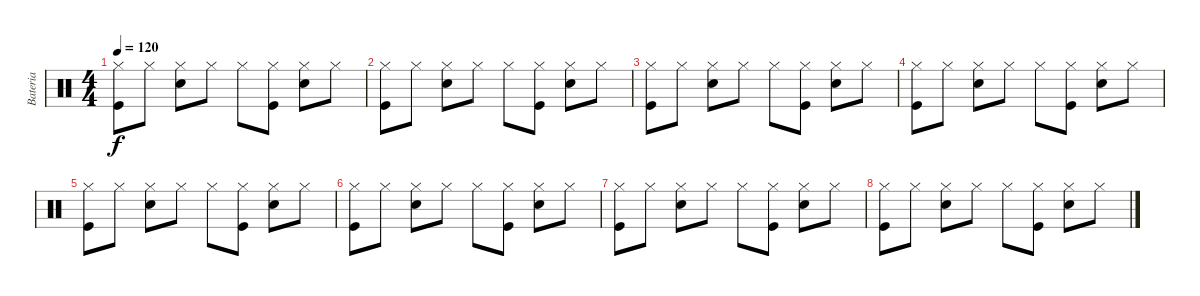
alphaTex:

\track ("Bateria" "Bateria") {instrument percussion}
\staff {score}
\articulation defaults
\ts (4 4)
\tempo 120
\clef neutral
\ks c
("Hi-Hat (closed)" "Kick (hit)").8{dy f} "Hi-Hat (closed)".8 ("Hi-Hat (closed)" "Snare (hit) 2").8 "Hi-Hat (closed)".8 "Hi-Hat (closed)".8 ("Hi-Hat (closed)" "Kick (hit)").8 ("Hi-Hat (closed)" "Snare (hit) 2").8 "Hi-Hat (closed)".8 |
("Hi-Hat (closed)" "Kick (hit)").8 "Hi-Hat (closed)".8 ("Hi-Hat (closed)" "Snare (hit) 2").8 "Hi-Hat (closed)".8 "Hi-Hat (closed)".8 ("Hi-Hat (closed)" "Kick (hit)").8 ("Hi-Hat (closed)" "Snare (hit) 2").8 "Hi-Hat (closed)".8 |
("Hi-Hat (closed)" "Kick (hit)").8 "Hi-Hat (closed)".8 ("Hi-Hat (closed)" "Snare (hit) 2").8 "Hi-Hat (closed)".8 "Hi-Hat (closed)".8 ("Hi-Hat (closed)" "Kick (hit)").8 ("Hi-Hat (closed)" "Snare (hit) 2").8 "Hi-Hat (closed)".8 |
("Hi-Hat (closed)" "Kick (hit)").8 "Hi-Hat (closed)".8 ("Hi-Hat (closed)" "Snare (hit) 2").8 "Hi-Hat (closed)".8 "Hi-Hat (closed)".8 ("Hi-Hat (closed)" "Kick (hit)").8 ("Hi-Hat (closed)" "Snare (hit) 2").8 "Hi-Hat (closed)".8 |
("Hi-Hat (closed)" "Kick (hit)").8 "Hi-Hat (closed)".8 ("Hi-Hat (closed)" "Snare (hit) 2").8 "Hi-Hat (closed)".8 "Hi-Hat (closed)".8 ("Hi-Hat (closed)" "Kick (hit)").8 ("Hi-Hat (closed)" "Snare (hit) 2").8 "Hi-Hat (closed)".8 |
("Hi-Hat (closed)" "Kick (hit)").8 "Hi-Hat (closed)".8 ("Hi-Hat (closed)" "Snare (hit) 2").8 "Hi-Hat (closed)".8 "Hi-Hat (closed)".8 ("Hi-Hat (closed)" "Kick (hit)").8 ("Hi-Hat (closed)" "Snare (hit) 2").8 "Hi-Hat (closed)".8 |
("Hi-Hat (closed)" "Kick (hit)").8 "Hi-Hat (closed)".8 ("Hi-Hat (closed)" "Snare (hit) 2").8 "Hi-Hat (closed)".8 "Hi-Hat (closed)".8 ("Hi-Hat (closed)" "Kick (hit)").8 ("Hi-Hat (closed)" "Snare (hit) 2").8 "Hi-Hat (closed)".8 |
("Hi-Hat (closed)" "Kick (hit)").8 "Hi-Hat (closed)".8 ("Hi-Hat (closed)" "Snare (hit) 2").8 "Hi-Hat (closed)".8 "Hi-Hat (closed)".8 ("Hi-Hat (closed)" "Kick (hit)").8 ("Hi-Hat (closed)" "Snare (hit) 2").8 "Hi-Hat (closed)".8
